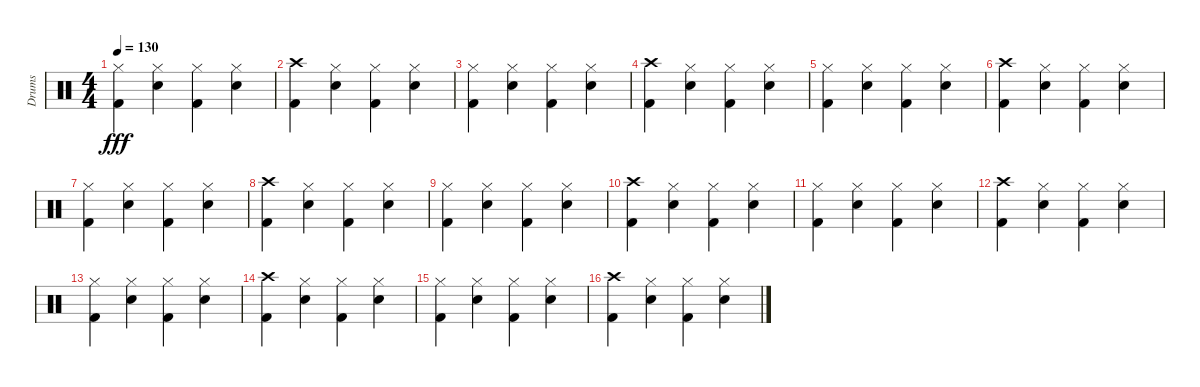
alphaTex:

\track ("Drums" "Drums") {instrument percussion}
\staff {score}
\articulation defaults
\ts (4 4)
\tempo 130
\clef neutral
\ks c
("Kick (hit) 2" "Hi-Hat (closed)").4{dy fff} ("Hi-Hat (closed)" "Snare (hit) 2").4 ("Kick (hit) 2" "Hi-Hat (closed)").4 ("Hi-Hat (closed)" "Snare (hit) 2").4 |
("Kick (hit) 2" "Crash high (hit)").4 ("Hi-Hat (closed)" "Snare (hit) 2").4 ("Kick (hit) 2" "Hi-Hat (closed)").4 ("Hi-Hat (closed)" "Snare (hit) 2").4 |
("Kick (hit) 2" "Hi-Hat (closed)").4 ("Hi-Hat (closed)" "Snare (hit) 2").4 ("Kick (hit) 2" "Hi-Hat (closed)").4 ("Hi-Hat (closed)" "Snare (hit) 2").4 |
("Kick (hit) 2" "Crash high (hit)").4 ("Hi-Hat (closed)" "Snare (hit) 2").4 ("Kick (hit) 2" "Hi-Hat (closed)").4 ("Hi-Hat (closed)" "Snare (hit) 2").4 |
("Kick (hit) 2" "Hi-Hat (closed)").4 ("Hi-Hat (closed)" "Snare (hit) 2").4 ("Kick (hit) 2" "Hi-Hat (closed)").4 ("Hi-Hat (closed)" "Snare (hit) 2").4 |
("Kick (hit) 2" "Crash high (hit)").4 ("Hi-Hat (closed)" "Snare (hit) 2").4 ("Kick (hit) 2" "Hi-Hat (closed)").4 ("Hi-Hat (closed)" "Snare (hit) 2").4 |
("Kick (hit) 2" "Hi-Hat (closed)").4 ("Hi-Hat (closed)" "Snare (hit) 2").4 ("Kick (hit) 2" "Hi-Hat (closed)").4 ("Hi-Hat (closed)" "Snare (hit) 2").4 |
("Kick (hit) 2" "Crash high (hit)").4 ("Hi-Hat (closed)" "Snare (hit) 2").4 ("Kick (hit) 2" "Hi-Hat (closed)").4 ("Hi-Hat (closed)" "Snare (hit) 2").4 |
("Kick (hit) 2" "Hi-Hat (closed)").4 ("Hi-Hat (closed)" "Snare (hit) 2").4 ("Kick (hit) 2" "Hi-Hat (closed)").4 ("Hi-Hat (closed)" "Snare (hit) 2").4 |
("Kick (hit) 2" "Crash high (hit)").4 ("Hi-Hat (closed)" "Snare (hit) 2").4 ("Kick (hit) 2" "Hi-Hat (closed)").4 ("Hi-Hat (closed)" "Snare (hit) 2").4 |
("Kick (hit) 2" "Hi-Hat (closed)").4 ("Hi-Hat (closed)" "Snare (hit) 2").4 ("Kick (hit) 2" "Hi-Hat (closed)").4 ("Hi-Hat (closed)" "Snare (hit) 2").4 |
("Kick (hit) 2" "Crash high (hit)").4 ("Hi-Hat (closed)" "Snare (hit) 2").4 ("Kick (hit) 2" "Hi-Hat (closed)").4 ("Hi-Hat (closed)" "Snare (hit) 2").4 |
("Kick (hit) 2" "Hi-Hat (closed)").4 ("Hi-Hat (closed)" "Snare (hit) 2").4 ("Kick (hit) 2" "Hi-Hat (closed)").4 ("Hi-Hat (closed)" "Snare (hit) 2").4 |
("Kick (hit) 2" "Crash high (hit)").4 ("Hi-Hat (closed)" "Snare (hit) 2").4 ("Kick (hit) 2" "Hi-Hat (closed)").4 ("Hi-Hat (closed)" "Snare (hit) 2").4 |
("Kick (hit) 2" "Hi-Hat (closed)").4 ("Hi-Hat (closed)" "Snare (hit) 2").4 ("Kick (hit) 2" "Hi-Hat (closed)").4 ("Hi-Hat (closed)" "Snare (hit) 2").4 |
("Kick (hit) 2" "Crash high (hit)").4 ("Hi-Hat (closed)" "Snare (hit) 2").4 ("Kick (hit) 2" "Hi-Hat (closed)").4 ("Hi-Hat (closed)" "Snare (hit) 2").4
